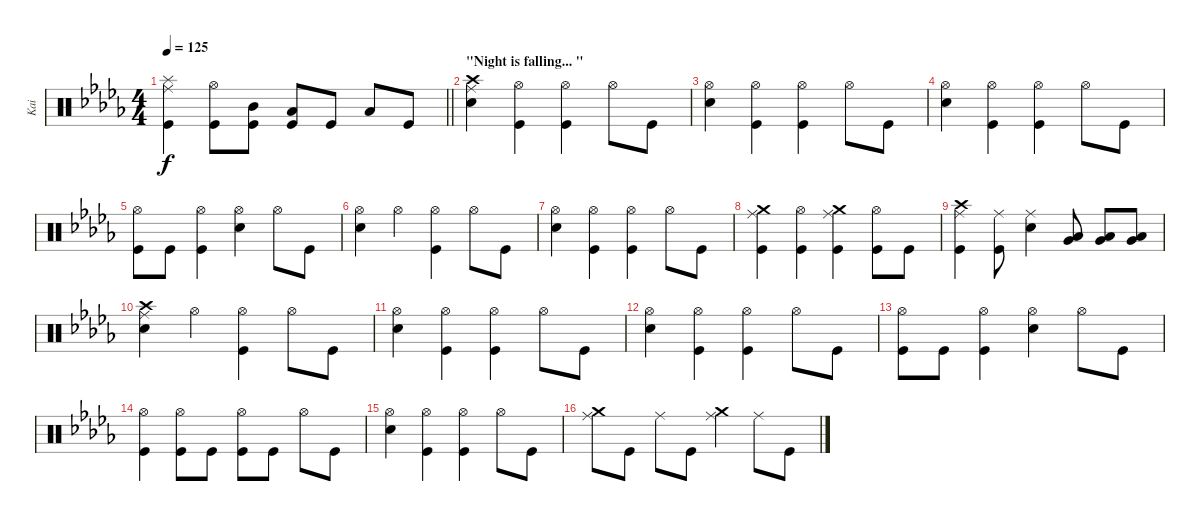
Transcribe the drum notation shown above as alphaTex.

\track ("Kai" "Kai") {instrument percussion}
\staff {score}
\articulation defaults
\ts (4 4)
\tempo 125
\clef neutral
\barLineRight lightlight
\ks bbminor
("Kick (hit)" "Ride (middle)" "Splash (hit)").4{dy f} ("Kick (hit)" "Hi-Hat (open)").8 ("Mid Tom (hit)" "Kick (hit)").8 ("Low Tom (hit)" "Kick (hit)").8 "Kick (hit)".8 "Low Tom (hit)".8 "Kick (hit)".8 |
\section ("" "\"Night is falling... \"")
("Crash high (hit)" "Snare (hit) 2" "Ride (middle)").4 ("Kick (hit)" "Hi-Hat (open)").4 ("Hi-Hat (open)" "Kick (hit)").4 "Hi-Hat (open)".8 "Kick (hit)".8 |
("Snare (hit) 2" "Hi-Hat (open)").4 ("Kick (hit)" "Hi-Hat (open)").4 ("Hi-Hat (open)" "Kick (hit)").4 "Hi-Hat (open)".8 "Kick (hit)".8 |
("Snare (hit) 2" "Hi-Hat (open)").4 ("Kick (hit)" "Hi-Hat (open)").4 ("Hi-Hat (open)" "Kick (hit)").4 "Hi-Hat (open)".8 "Kick (hit)".8 |
("Kick (hit)" "Hi-Hat (open)").8 "Kick (hit)".8 ("Kick (hit)" "Hi-Hat (open)").4 ("Snare (hit) 2" "Hi-Hat (open)").4 "Hi-Hat (open)".8 "Kick (hit)".8 |
("Snare (hit) 2" "Hi-Hat (open)").4 "Hi-Hat (open)".4 ("Hi-Hat (open)" "Kick (hit)").4 "Hi-Hat (open)".8 "Kick (hit)".8 |
("Snare (hit) 2" "Hi-Hat (open)").4 ("Kick (hit)" "Hi-Hat (open)").4 ("Hi-Hat (open)" "Kick (hit)").4 "Hi-Hat (open)".8 "Kick (hit)".8 |
("Kick (hit)" "Ride (middle)" "Crash medium (hit)").4 ("Kick (hit)" "Hi-Hat (open)").4 ("Kick (hit)" "Crash medium (hit)" "Ride (middle)").4 ("Hi-Hat (open)" "Kick (hit)").8 "Kick (hit)".8 |
("Kick (hit)" "Crash high (hit)" "Ride (middle)").4 ("Kick (hit)" "Ride (middle)").8 ("Snare (hit) 2" "Ride (middle)").4 ("Very Low Tom (hit)" "Low Tom (hit)").8 ("Low Tom (hit)" "Very Low Tom (hit)").8 ("Low Tom (hit)" "Very Low Tom (hit)").8 |
("Crash high (hit)" "Snare (hit) 2" "Ride (middle)").4 "Hi-Hat (open)".4 ("Hi-Hat (open)" "Kick (hit)").4 "Hi-Hat (open)".8 "Kick (hit)".8 |
("Snare (hit) 2" "Hi-Hat (open)").4 ("Kick (hit)" "Hi-Hat (open)").4 ("Hi-Hat (open)" "Kick (hit)").4 "Hi-Hat (open)".8 "Kick (hit)".8 |
("Snare (hit) 2" "Hi-Hat (open)").4 ("Kick (hit)" "Hi-Hat (open)").4 ("Hi-Hat (open)" "Kick (hit)").4 "Hi-Hat (open)".8 "Kick (hit)".8 |
("Kick (hit)" "Hi-Hat (open)").8 "Kick (hit)".8 ("Kick (hit)" "Hi-Hat (open)").4 ("Snare (hit) 2" "Hi-Hat (open)").4 "Hi-Hat (open)".8 "Kick (hit)".8 |
("Kick (hit)" "Hi-Hat (open)").4 ("Kick (hit)" "Hi-Hat (open)").8 "Kick (hit)".8 ("Kick (hit)" "Hi-Hat (open)").8 "Kick (hit)".8 "Hi-Hat (open)".8 "Kick (hit)".8 |
("Snare (hit) 2" "Hi-Hat (open)").4 ("Kick (hit)" "Hi-Hat (open)").4 ("Hi-Hat (open)" "Kick (hit)").4 "Hi-Hat (open)".8 "Kick (hit)".8 |
("Ride (middle)" "Crash medium (hit)").8 "Kick (hit)".8 "Ride (middle)".8 "Kick (hit)".8 ("Ride (middle)" "Crash medium (hit)").4 "Ride (middle)".8 "Kick (hit)".8
